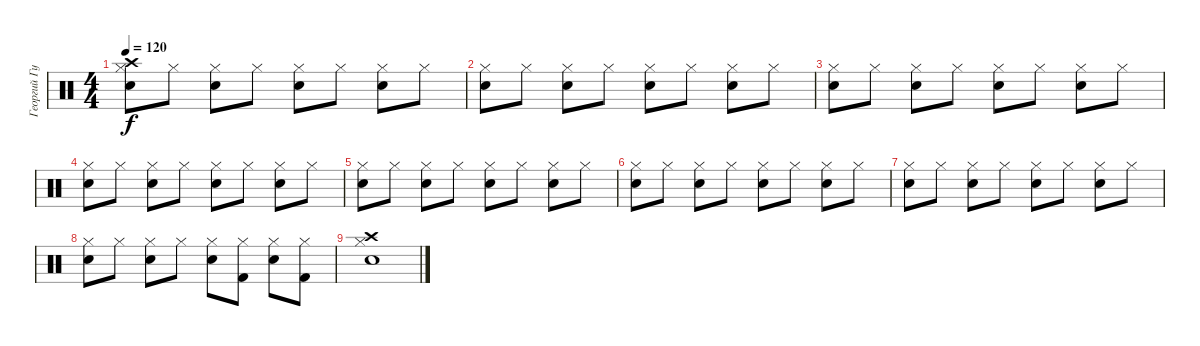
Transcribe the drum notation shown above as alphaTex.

\track ("Георгий Гурьянов" "Георгий Гу") {instrument percussion}
\staff {score}
\articulation defaults
\ts (4 4)
\tempo 120
\clef neutral
\ks c
("Hi-Hat (closed)" "Crash high (hit)" "Snare (hit) 2").8{dy f} "Hi-Hat (closed)".8 ("Hi-Hat (closed)" "Snare (hit) 2").8 "Hi-Hat (closed)".8 ("Hi-Hat (closed)" "Snare (hit) 2").8 "Hi-Hat (closed)".8 ("Hi-Hat (closed)" "Snare (hit) 2").8 "Hi-Hat (closed)".8 |
("Hi-Hat (closed)" "Snare (hit) 2").8 "Hi-Hat (closed)".8 ("Hi-Hat (closed)" "Snare (hit) 2").8 "Hi-Hat (closed)".8 ("Hi-Hat (closed)" "Snare (hit) 2").8 "Hi-Hat (closed)".8 ("Hi-Hat (closed)" "Snare (hit) 2").8 "Hi-Hat (closed)".8 |
("Hi-Hat (closed)" "Snare (hit) 2").8 "Hi-Hat (closed)".8 ("Hi-Hat (closed)" "Snare (hit) 2").8 "Hi-Hat (closed)".8 ("Hi-Hat (closed)" "Snare (hit) 2").8 "Hi-Hat (closed)".8 ("Hi-Hat (closed)" "Snare (hit) 2").8 "Hi-Hat (closed)".8 |
("Hi-Hat (closed)" "Snare (hit) 2").8 "Hi-Hat (closed)".8 ("Hi-Hat (closed)" "Snare (hit) 2").8 "Hi-Hat (closed)".8 ("Hi-Hat (closed)" "Snare (hit) 2").8 "Hi-Hat (closed)".8 ("Hi-Hat (closed)" "Snare (hit) 2").8 "Hi-Hat (closed)".8 |
("Hi-Hat (closed)" "Snare (hit) 2").8 "Hi-Hat (closed)".8 ("Hi-Hat (closed)" "Snare (hit) 2").8 "Hi-Hat (closed)".8 ("Hi-Hat (closed)" "Snare (hit) 2").8 "Hi-Hat (closed)".8 ("Hi-Hat (closed)" "Snare (hit) 2").8 "Hi-Hat (closed)".8 |
("Hi-Hat (closed)" "Snare (hit) 2").8 "Hi-Hat (closed)".8 ("Hi-Hat (closed)" "Snare (hit) 2").8 "Hi-Hat (closed)".8 ("Hi-Hat (closed)" "Snare (hit) 2").8 "Hi-Hat (closed)".8 ("Hi-Hat (closed)" "Snare (hit) 2").8 "Hi-Hat (closed)".8 |
("Hi-Hat (closed)" "Snare (hit) 2").8 "Hi-Hat (closed)".8 ("Hi-Hat (closed)" "Snare (hit) 2").8 "Hi-Hat (closed)".8 ("Hi-Hat (closed)" "Snare (hit) 2").8 "Hi-Hat (closed)".8 ("Hi-Hat (closed)" "Snare (hit) 2").8 "Hi-Hat (closed)".8 |
("Hi-Hat (closed)" "Snare (hit) 2").8 "Hi-Hat (closed)".8 ("Hi-Hat (closed)" "Snare (hit) 2").8 "Hi-Hat (closed)".8 ("Hi-Hat (closed)" "Snare (hit) 2").8 ("Hi-Hat (closed)" "Kick (hit) 2").8 ("Hi-Hat (closed)" "Snare (hit) 2").8 ("Hi-Hat (closed)" "Kick (hit) 2").8 |
("Hi-Hat (closed)" "Crash high (hit)" "Snare (hit) 2").1
